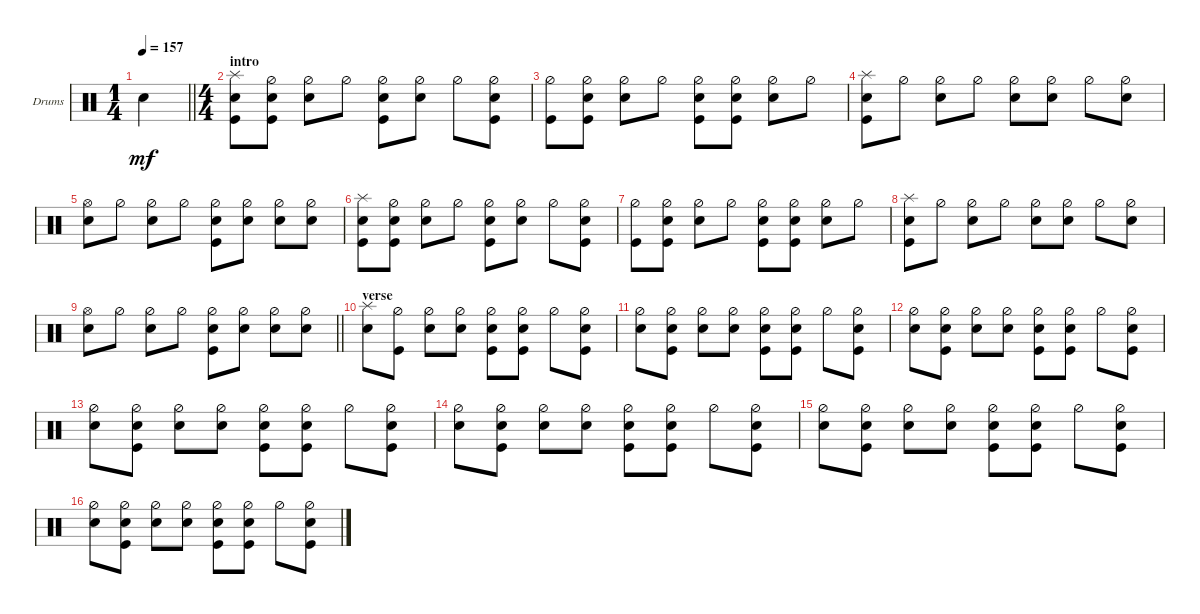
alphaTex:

\bracketExtendMode groupsimilarinstruments
\firstSystemTrackNameOrientation horizontal
\otherSystemsTrackNameOrientation horizontal
\track ("Drumkit" "Drums") {instrument percussion}
\staff {score}
\articulation defaults
\ts (1 4)
\tempo 157
\clef neutral
\scale
0.391473
\barLineRight lightlight
\ks c "Snare (hit) 2".4{dy mf}
|
\ts (4 4)
\section ("" "intro")
\scale
0.391473 ("Kick (hit)" "Splash (hit)" "Snare (hit) 2").8 ("Kick (hit)" "Snare (hit) 2" "Hi-Hat (half)").8 ("Hi-Hat (half)" "Snare (hit) 2").8 "Hi-Hat (half)".8 ("Kick (hit)" "Snare (hit) 2" "Hi-Hat (half)").8 ("Hi-Hat (half)" "Snare (hit) 2").8 "Hi-Hat (half)".8 ("Snare (hit) 2" "Hi-Hat (half)" "Kick (hit)").8 |
\scale
0.217054 ("Kick (hit)" "Hi-Hat (half)").8 ("Snare (hit) 2" "Kick (hit)" "Hi-Hat (half)").8 ("Hi-Hat (half)" "Snare (hit) 2").8 "Hi-Hat (half)".8 ("Kick (hit)" "Snare (hit) 2" "Hi-Hat (half)").8 ("Snare (hit) 2" "Kick (hit)" "Hi-Hat (half)").8 ("Hi-Hat (half)" "Snare (hit) 2").8 "Hi-Hat (half)".8 |
\scale
0.333333 ("Snare (hit) 2" "Kick (hit)" "Splash (hit)").8 "Hi-Hat (half)".8 ("Snare (hit) 2" "Hi-Hat (half)").8 "Hi-Hat (half)".8 ("Hi-Hat (half)" "Snare (hit) 2").8 ("Hi-Hat (half)" "Snare (hit) 2").8 "Hi-Hat (half)".8 ("Hi-Hat (half)" "Snare (hit) 2").8 |
\scale
0.333333 ("Hi-Hat (open)" "Snare (hit) 2").8 "Hi-Hat (half)".8 ("Hi-Hat (half)" "Snare (hit) 2").8 "Hi-Hat (half)".8 ("Kick (hit)" "Hi-Hat (half)" "Snare (hit) 2").8 ("Hi-Hat (half)" "Snare (hit) 2").8 ("Hi-Hat (half)" "Snare (hit) 2").8 ("Hi-Hat (half)" "Snare (hit) 2").8 |
\scale
0.333333 ("Kick (hit)" "Splash (hit)" "Snare (hit) 2").8 ("Kick (hit)" "Snare (hit) 2" "Hi-Hat (half)").8 ("Hi-Hat (half)" "Snare (hit) 2").8 "Hi-Hat (half)".8 ("Kick (hit)" "Snare (hit) 2" "Hi-Hat (half)").8 ("Hi-Hat (half)" "Snare (hit) 2").8 "Hi-Hat (half)".8 ("Snare (hit) 2" "Hi-Hat (half)" "Kick (hit)").8 |
\scale
0.333333 ("Kick (hit)" "Hi-Hat (half)").8 ("Snare (hit) 2" "Kick (hit)" "Hi-Hat (half)").8 ("Hi-Hat (half)" "Snare (hit) 2").8 "Hi-Hat (half)".8 ("Kick (hit)" "Snare (hit) 2" "Hi-Hat (half)").8 ("Snare (hit) 2" "Kick (hit)" "Hi-Hat (half)").8 ("Hi-Hat (half)" "Snare (hit) 2").8 "Hi-Hat (half)".8 |
\scale
0.333333 ("Snare (hit) 2" "Kick (hit)" "Splash (hit)").8 "Hi-Hat (half)".8 ("Snare (hit) 2" "Hi-Hat (half)").8 "Hi-Hat (half)".8 ("Hi-Hat (half)" "Snare (hit) 2").8 ("Hi-Hat (half)" "Snare (hit) 2").8 "Hi-Hat (half)".8 ("Hi-Hat (half)" "Snare (hit) 2").8 |
\scale
0.333333
\barLineRight lightlight
("Hi-Hat (open)" "Snare (hit) 2").8 "Hi-Hat (half)".8 ("Hi-Hat (half)" "Snare (hit) 2").8 "Hi-Hat (half)".8 ("Kick (hit)" "Hi-Hat (half)" "Snare (hit) 2").8 ("Hi-Hat (half)" "Snare (hit) 2").8 ("Hi-Hat (half)" "Snare (hit) 2").8 ("Hi-Hat (half)" "Snare (hit) 2").8 |
\section ("" "verse")
\scale
0.333333 ("Splash (hit)" "Snare (hit) 2").8 ("Hi-Hat (half)" "Kick (hit)").8 ("Hi-Hat (half)" "Snare (hit) 2").8 ("Hi-Hat (half)" "Snare (hit) 2").8 ("Hi-Hat (half)" "Snare (hit) 2" "Kick (hit)").8 ("Hi-Hat (half)" "Snare (hit) 2" "Kick (hit)").8 "Hi-Hat (half)".8 ("Hi-Hat (half)" "Snare (hit) 2" "Kick (hit)").8 |
\scale
0.333333 ("Hi-Hat (half)" "Snare (hit) 2").8 ("Hi-Hat (half)" "Snare (hit) 2" "Kick (hit)").8 ("Hi-Hat (half)" "Snare (hit) 2").8 ("Hi-Hat (half)" "Snare (hit) 2").8 ("Hi-Hat (half)" "Snare (hit) 2" "Kick (hit)").8 ("Hi-Hat (half)" "Snare (hit) 2" "Kick (hit)").8 "Hi-Hat (half)".8 ("Hi-Hat (half)" "Snare (hit) 2" "Kick (hit)").8 |
\scale
0.333333 ("Hi-Hat (half)" "Snare (hit) 2").8 ("Hi-Hat (half)" "Snare (hit) 2" "Kick (hit)").8 ("Hi-Hat (half)" "Snare (hit) 2").8 ("Hi-Hat (half)" "Snare (hit) 2").8 ("Hi-Hat (half)" "Snare (hit) 2" "Kick (hit)").8 ("Hi-Hat (half)" "Snare (hit) 2" "Kick (hit)").8 "Hi-Hat (half)".8 ("Hi-Hat (half)" "Snare (hit) 2" "Kick (hit)").8 |
\scale
0.333333 ("Hi-Hat (half)" "Snare (hit) 2").8 ("Hi-Hat (half)" "Snare (hit) 2" "Kick (hit)").8 ("Hi-Hat (half)" "Snare (hit) 2").8 ("Hi-Hat (half)" "Snare (hit) 2").8 ("Hi-Hat (half)" "Snare (hit) 2" "Kick (hit)").8 ("Hi-Hat (half)" "Snare (hit) 2" "Kick (hit)").8 "Hi-Hat (half)".8 ("Hi-Hat (half)" "Snare (hit) 2" "Kick (hit)").8 |
\scale
0.333333 ("Hi-Hat (half)" "Snare (hit) 2").8 ("Hi-Hat (half)" "Snare (hit) 2" "Kick (hit)").8 ("Hi-Hat (half)" "Snare (hit) 2").8 ("Hi-Hat (half)" "Snare (hit) 2").8 ("Hi-Hat (half)" "Snare (hit) 2" "Kick (hit)").8 ("Hi-Hat (half)" "Snare (hit) 2" "Kick (hit)").8 "Hi-Hat (half)".8 ("Hi-Hat (half)" "Snare (hit) 2" "Kick (hit)").8 |
\scale
0.333333 ("Hi-Hat (half)" "Snare (hit) 2").8 ("Hi-Hat (half)" "Snare (hit) 2" "Kick (hit)").8 ("Hi-Hat (half)" "Snare (hit) 2").8 ("Hi-Hat (half)" "Snare (hit) 2").8 ("Hi-Hat (half)" "Snare (hit) 2" "Kick (hit)").8 ("Hi-Hat (half)" "Snare (hit) 2" "Kick (hit)").8 "Hi-Hat (half)".8 ("Hi-Hat (half)" "Snare (hit) 2" "Kick (hit)").8 |
\scale
0.333333 ("Hi-Hat (half)" "Snare (hit) 2").8 ("Hi-Hat (half)" "Snare (hit) 2" "Kick (hit)").8 ("Hi-Hat (half)" "Snare (hit) 2").8 ("Hi-Hat (half)" "Snare (hit) 2").8 ("Hi-Hat (half)" "Snare (hit) 2" "Kick (hit)").8 ("Hi-Hat (half)" "Snare (hit) 2" "Kick (hit)").8 "Hi-Hat (half)".8 ("Hi-Hat (half)" "Snare (hit) 2" "Kick (hit)").8
